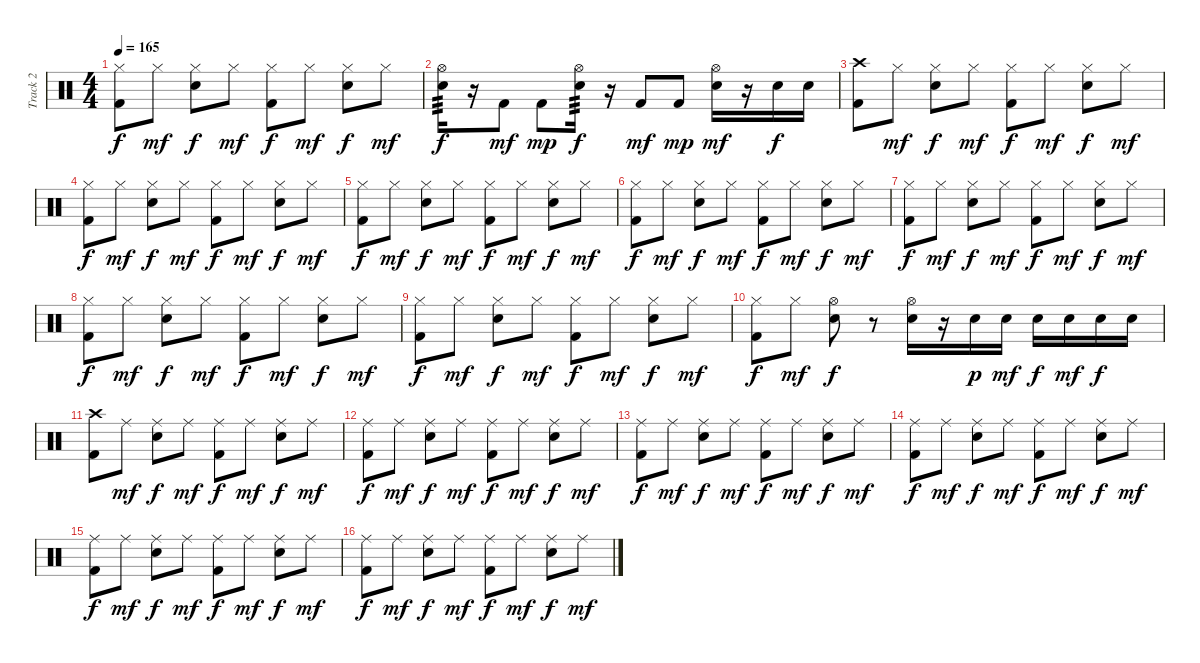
\track ("Track 2" "Track 2") {instrument percussion}
\staff {score}
\articulation defaults
\ts (4 4)
\tempo 165
\clef neutral
\ks c
("Hi-Hat (closed)" "Kick (hit) 2").8{dy f} "Hi-Hat (closed)".8{dy mf} ("Hi-Hat (closed)" "Electric Snare (hit)").8{dy f} "Hi-Hat (closed)".8{dy mf} ("Hi-Hat (closed)" "Kick (hit) 2").8{dy f} "Hi-Hat (closed)".8{dy mf} ("Hi-Hat (closed)" "Electric Snare (hit)").8{dy f} "Hi-Hat (closed)".8{dy mf} |
("Hi-Hat (open)" "Electric Snare (hit)").16{tp 3 dy f} r.16 "Kick (hit) 2".8{dy mf} "Kick (hit) 2".8{dy mp} ("Hi-Hat (open)" "Electric Snare (hit)").16{tp 3 dy f} r.16 "Kick (hit) 2".8{dy mf} "Kick (hit) 2".8{dy mp} ("Hi-Hat (open)" "Electric Snare (hit)").16{dy mf} r.16 "Electric Snare (hit)".16{dy f} "Electric Snare (hit)".16 |
("Crash high (hit)" "Kick (hit) 2").8 "Hi-Hat (closed)".8{dy mf} ("Hi-Hat (closed)" "Electric Snare (hit)").8{dy f} "Hi-Hat (closed)".8{dy mf} ("Hi-Hat (closed)" "Kick (hit) 2").8{dy f} "Hi-Hat (closed)".8{dy mf} ("Hi-Hat (closed)" "Electric Snare (hit)").8{dy f} "Hi-Hat (closed)".8{dy mf} |
("Hi-Hat (closed)" "Kick (hit) 2").8{dy f} "Hi-Hat (closed)".8{dy mf} ("Hi-Hat (closed)" "Electric Snare (hit)").8{dy f} "Hi-Hat (closed)".8{dy mf} ("Hi-Hat (closed)" "Kick (hit) 2").8{dy f} "Hi-Hat (closed)".8{dy mf} ("Hi-Hat (closed)" "Electric Snare (hit)").8{dy f} "Hi-Hat (closed)".8{dy mf} |
("Hi-Hat (closed)" "Kick (hit) 2").8{dy f} "Hi-Hat (closed)".8{dy mf} ("Hi-Hat (closed)" "Electric Snare (hit)").8{dy f} "Hi-Hat (closed)".8{dy mf} ("Hi-Hat (closed)" "Kick (hit) 2").8{dy f} "Hi-Hat (closed)".8{dy mf} ("Hi-Hat (closed)" "Electric Snare (hit)").8{dy f} "Hi-Hat (closed)".8{dy mf} |
("Hi-Hat (closed)" "Kick (hit) 2").8{dy f} "Hi-Hat (closed)".8{dy mf} ("Hi-Hat (closed)" "Electric Snare (hit)").8{dy f} "Hi-Hat (closed)".8{dy mf} ("Hi-Hat (closed)" "Kick (hit) 2").8{dy f} "Hi-Hat (closed)".8{dy mf} ("Hi-Hat (closed)" "Electric Snare (hit)").8{dy f} "Hi-Hat (closed)".8{dy mf} |
("Hi-Hat (closed)" "Kick (hit) 2").8{dy f} "Hi-Hat (closed)".8{dy mf} ("Hi-Hat (closed)" "Electric Snare (hit)").8{dy f} "Hi-Hat (closed)".8{dy mf} ("Hi-Hat (closed)" "Kick (hit) 2").8{dy f} "Hi-Hat (closed)".8{dy mf} ("Hi-Hat (closed)" "Electric Snare (hit)").8{dy f} "Hi-Hat (closed)".8{dy mf} |
("Hi-Hat (closed)" "Kick (hit) 2").8{dy f} "Hi-Hat (closed)".8{dy mf} ("Hi-Hat (closed)" "Electric Snare (hit)").8{dy f} "Hi-Hat (closed)".8{dy mf} ("Hi-Hat (closed)" "Kick (hit) 2").8{dy f} "Hi-Hat (closed)".8{dy mf} ("Hi-Hat (closed)" "Electric Snare (hit)").8{dy f} "Hi-Hat (closed)".8{dy mf} |
("Hi-Hat (closed)" "Kick (hit) 2").8{dy f} "Hi-Hat (closed)".8{dy mf} ("Hi-Hat (closed)" "Electric Snare (hit)").8{dy f} "Hi-Hat (closed)".8{dy mf} ("Hi-Hat (closed)" "Kick (hit) 2").8{dy f} "Hi-Hat (closed)".8{dy mf} ("Hi-Hat (closed)" "Electric Snare (hit)").8{dy f} "Hi-Hat (closed)".8{dy mf} |
("Hi-Hat (closed)" "Kick (hit) 2").8{dy f} "Hi-Hat (closed)".8{dy mf} ("Hi-Hat (open)" "Electric Snare (hit)").8{dy f} r.8 ("Hi-Hat (open)" "Electric Snare (hit)").16 r.16 "Electric Snare (hit)".16{dy p} "Electric Snare (hit)".16{dy mf} "Electric Snare (hit)".16{dy f} "Electric Snare (hit)".16{dy mf} "Electric Snare (hit)".16{dy f} "Electric Snare (hit)".16 |
("Crash high (hit)" "Kick (hit) 2").8 "Ride (middle)".8{dy mf} ("Ride (middle)" "Electric Snare (hit)").8{dy f} "Ride (middle)".8{dy mf} ("Ride (middle)" "Kick (hit) 2").8{dy f} "Ride (middle)".8{dy mf} ("Ride (middle)" "Electric Snare (hit)").8{dy f} "Ride (middle)".8{dy mf} |
("Ride (middle)" "Kick (hit) 2").8{dy f} "Ride (middle)".8{dy mf} ("Ride (middle)" "Electric Snare (hit)").8{dy f} "Ride (middle)".8{dy mf} ("Ride (middle)" "Kick (hit) 2").8{dy f} "Ride (middle)".8{dy mf} ("Ride (middle)" "Electric Snare (hit)").8{dy f} "Ride (middle)".8{dy mf} |
("Ride (middle)" "Kick (hit) 2").8{dy f} "Ride (middle)".8{dy mf} ("Ride (middle)" "Electric Snare (hit)").8{dy f} "Ride (middle)".8{dy mf} ("Ride (middle)" "Kick (hit) 2").8{dy f} "Ride (middle)".8{dy mf} ("Ride (middle)" "Electric Snare (hit)").8{dy f} "Ride (middle)".8{dy mf} |
("Ride (middle)" "Kick (hit) 2").8{dy f} "Ride (middle)".8{dy mf} ("Ride (middle)" "Electric Snare (hit)").8{dy f} "Ride (middle)".8{dy mf} ("Ride (middle)" "Kick (hit) 2").8{dy f} "Ride (middle)".8{dy mf} ("Ride (middle)" "Electric Snare (hit)").8{dy f} "Ride (middle)".8{dy mf} |
("Ride (middle)" "Kick (hit) 2").8{dy f} "Ride (middle)".8{dy mf} ("Ride (middle)" "Electric Snare (hit)").8{dy f} "Ride (middle)".8{dy mf} ("Ride (middle)" "Kick (hit) 2").8{dy f} "Ride (middle)".8{dy mf} ("Ride (middle)" "Electric Snare (hit)").8{dy f} "Ride (middle)".8{dy mf} |
("Ride (middle)" "Kick (hit) 2").8{dy f} "Ride (middle)".8{dy mf} ("Ride (middle)" "Electric Snare (hit)").8{dy f} "Ride (middle)".8{dy mf} ("Ride (middle)" "Kick (hit) 2").8{dy f} "Ride (middle)".8{dy mf} ("Ride (middle)" "Electric Snare (hit)").8{dy f} "Ride (middle)".8{dy mf}
